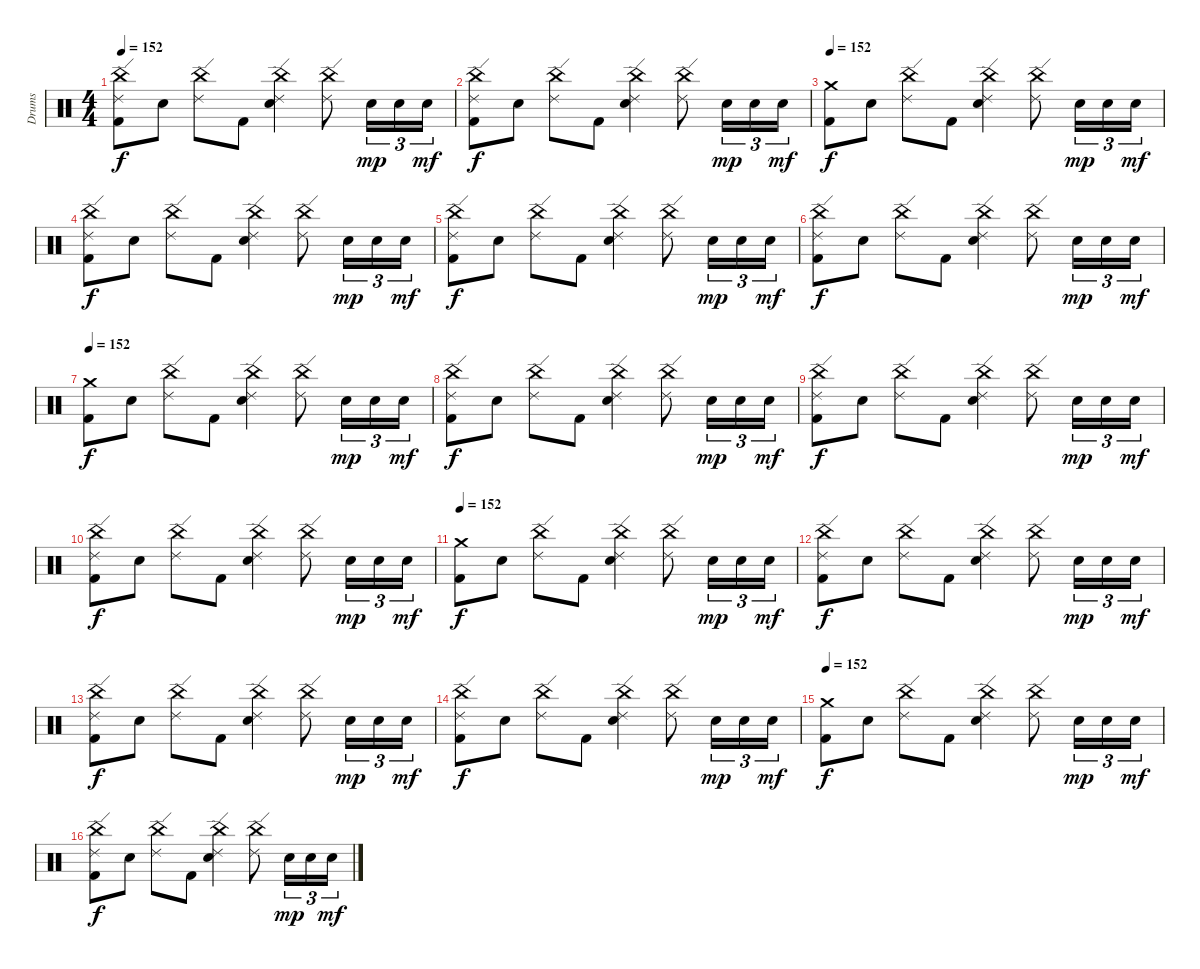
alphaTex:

\track ("Drums" "Drums") {instrument percussion}
\staff {score}
\articulation defaults
\ts (4 4)
\tempo 152
\clef neutral
\ks c
("China (hit)" "Ride (edge) 2" "Kick (hit) 2").8{dy f} "Snare (hit) 2".8 ("China (hit)" "Ride (edge) 2").8 "Kick (hit) 2".8 ("China (hit)" "Ride (edge) 2" "Snare (hit) 2").4 ("China (hit)" "Ride (edge) 2").8 "Snare (hit) 2".16{tu (3 2) dy mp} "Snare (hit) 2".16{tu (3 2)} "Snare (hit) 2".16{tu (3 2) dy mf} |
("China (hit)" "Ride (edge) 2" "Kick (hit) 2").8{dy f} "Snare (hit) 2".8 ("China (hit)" "Ride (edge) 2").8 "Kick (hit) 2".8 ("China (hit)" "Ride (edge) 2" "Snare (hit) 2").4 ("China (hit)" "Ride (edge) 2").8 "Snare (hit) 2".16{tu (3 2) dy mp} "Snare (hit) 2".16{tu (3 2)} "Snare (hit) 2".16{tu (3 2) dy mf} |
\tempo 152
("Crash medium (hit)" "Kick (hit) 2").8{dy f} "Snare (hit) 2".8 ("China (hit)" "Ride (edge) 2").8 "Kick (hit) 2".8 ("China (hit)" "Ride (edge) 2" "Snare (hit) 2").4 ("China (hit)" "Ride (edge) 2").8 "Snare (hit) 2".16{tu (3 2) dy mp} "Snare (hit) 2".16{tu (3 2)} "Snare (hit) 2".16{tu (3 2) dy mf} |
("China (hit)" "Ride (edge) 2" "Kick (hit) 2").8{dy f} "Snare (hit) 2".8 ("China (hit)" "Ride (edge) 2").8 "Kick (hit) 2".8 ("China (hit)" "Ride (edge) 2" "Snare (hit) 2").4 ("China (hit)" "Ride (edge) 2").8 "Snare (hit) 2".16{tu (3 2) dy mp} "Snare (hit) 2".16{tu (3 2)} "Snare (hit) 2".16{tu (3 2) dy mf} |
("China (hit)" "Ride (edge) 2" "Kick (hit) 2").8{dy f} "Snare (hit) 2".8 ("China (hit)" "Ride (edge) 2").8 "Kick (hit) 2".8 ("China (hit)" "Ride (edge) 2" "Snare (hit) 2").4 ("China (hit)" "Ride (edge) 2").8 "Snare (hit) 2".16{tu (3 2) dy mp} "Snare (hit) 2".16{tu (3 2)} "Snare (hit) 2".16{tu (3 2) dy mf} |
("China (hit)" "Ride (edge) 2" "Kick (hit) 2").8{dy f} "Snare (hit) 2".8 ("China (hit)" "Ride (edge) 2").8 "Kick (hit) 2".8 ("China (hit)" "Ride (edge) 2" "Snare (hit) 2").4 ("China (hit)" "Ride (edge) 2").8 "Snare (hit) 2".16{tu (3 2) dy mp} "Snare (hit) 2".16{tu (3 2)} "Snare (hit) 2".16{tu (3 2) dy mf} |
\tempo 152
("Crash medium (hit)" "Kick (hit) 2").8{dy f} "Snare (hit) 2".8 ("China (hit)" "Ride (edge) 2").8 "Kick (hit) 2".8 ("China (hit)" "Ride (edge) 2" "Snare (hit) 2").4 ("China (hit)" "Ride (edge) 2").8 "Snare (hit) 2".16{tu (3 2) dy mp} "Snare (hit) 2".16{tu (3 2)} "Snare (hit) 2".16{tu (3 2) dy mf} |
("China (hit)" "Ride (edge) 2" "Kick (hit) 2").8{dy f} "Snare (hit) 2".8 ("China (hit)" "Ride (edge) 2").8 "Kick (hit) 2".8 ("China (hit)" "Ride (edge) 2" "Snare (hit) 2").4 ("China (hit)" "Ride (edge) 2").8 "Snare (hit) 2".16{tu (3 2) dy mp} "Snare (hit) 2".16{tu (3 2)} "Snare (hit) 2".16{tu (3 2) dy mf} |
("China (hit)" "Ride (edge) 2" "Kick (hit) 2").8{dy f} "Snare (hit) 2".8 ("China (hit)" "Ride (edge) 2").8 "Kick (hit) 2".8 ("China (hit)" "Ride (edge) 2" "Snare (hit) 2").4 ("China (hit)" "Ride (edge) 2").8 "Snare (hit) 2".16{tu (3 2) dy mp} "Snare (hit) 2".16{tu (3 2)} "Snare (hit) 2".16{tu (3 2) dy mf} |
("China (hit)" "Ride (edge) 2" "Kick (hit) 2").8{dy f} "Snare (hit) 2".8 ("China (hit)" "Ride (edge) 2").8 "Kick (hit) 2".8 ("China (hit)" "Ride (edge) 2" "Snare (hit) 2").4 ("China (hit)" "Ride (edge) 2").8 "Snare (hit) 2".16{tu (3 2) dy mp} "Snare (hit) 2".16{tu (3 2)} "Snare (hit) 2".16{tu (3 2) dy mf} |
\tempo 152
("Crash medium (hit)" "Kick (hit) 2").8{dy f} "Snare (hit) 2".8 ("China (hit)" "Ride (edge) 2").8 "Kick (hit) 2".8 ("China (hit)" "Ride (edge) 2" "Snare (hit) 2").4 ("China (hit)" "Ride (edge) 2").8 "Snare (hit) 2".16{tu (3 2) dy mp} "Snare (hit) 2".16{tu (3 2)} "Snare (hit) 2".16{tu (3 2) dy mf} |
("China (hit)" "Ride (edge) 2" "Kick (hit) 2").8{dy f} "Snare (hit) 2".8 ("China (hit)" "Ride (edge) 2").8 "Kick (hit) 2".8 ("China (hit)" "Ride (edge) 2" "Snare (hit) 2").4 ("China (hit)" "Ride (edge) 2").8 "Snare (hit) 2".16{tu (3 2) dy mp} "Snare (hit) 2".16{tu (3 2)} "Snare (hit) 2".16{tu (3 2) dy mf} |
("China (hit)" "Ride (edge) 2" "Kick (hit) 2").8{dy f} "Snare (hit) 2".8 ("China (hit)" "Ride (edge) 2").8 "Kick (hit) 2".8 ("China (hit)" "Ride (edge) 2" "Snare (hit) 2").4 ("China (hit)" "Ride (edge) 2").8 "Snare (hit) 2".16{tu (3 2) dy mp} "Snare (hit) 2".16{tu (3 2)} "Snare (hit) 2".16{tu (3 2) dy mf} |
("China (hit)" "Ride (edge) 2" "Kick (hit) 2").8{dy f} "Snare (hit) 2".8 ("China (hit)" "Ride (edge) 2").8 "Kick (hit) 2".8 ("China (hit)" "Ride (edge) 2" "Snare (hit) 2").4 ("China (hit)" "Ride (edge) 2").8 "Snare (hit) 2".16{tu (3 2) dy mp} "Snare (hit) 2".16{tu (3 2)} "Snare (hit) 2".16{tu (3 2) dy mf} |
\tempo 152
("Crash medium (hit)" "Kick (hit) 2").8{dy f} "Snare (hit) 2".8 ("China (hit)" "Ride (edge) 2").8 "Kick (hit) 2".8 ("China (hit)" "Ride (edge) 2" "Snare (hit) 2").4 ("China (hit)" "Ride (edge) 2").8 "Snare (hit) 2".16{tu (3 2) dy mp} "Snare (hit) 2".16{tu (3 2)} "Snare (hit) 2".16{tu (3 2) dy mf} |
("China (hit)" "Ride (edge) 2" "Kick (hit) 2").8{dy f} "Snare (hit) 2".8 ("China (hit)" "Ride (edge) 2").8 "Kick (hit) 2".8 ("China (hit)" "Ride (edge) 2" "Snare (hit) 2").4 ("China (hit)" "Ride (edge) 2").8 "Snare (hit) 2".16{tu (3 2) dy mp} "Snare (hit) 2".16{tu (3 2)} "Snare (hit) 2".16{tu (3 2) dy mf}
